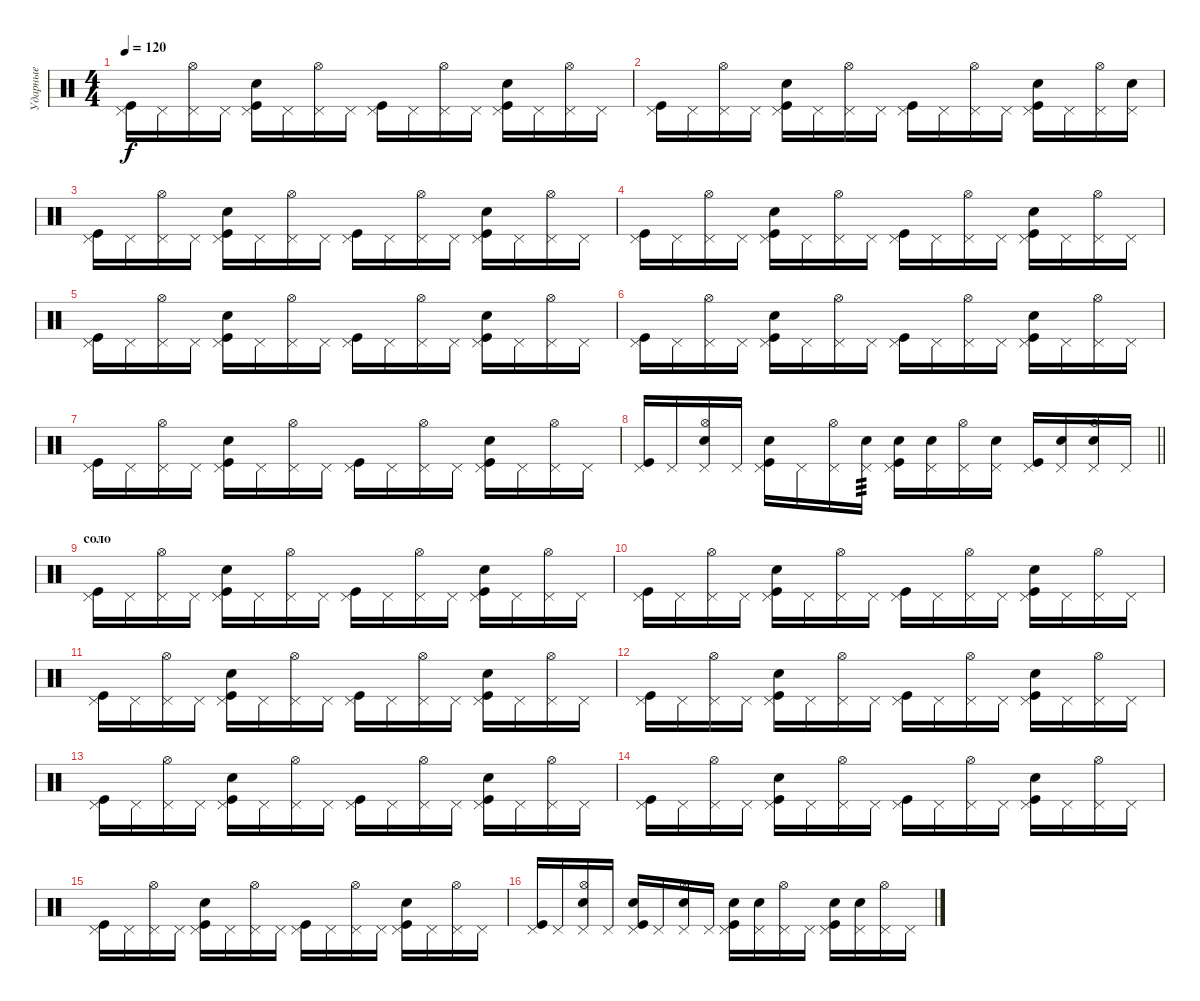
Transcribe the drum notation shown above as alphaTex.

\track ("Ударные" "Ударные") {instrument percussion}
\staff {score}
\articulation defaults
\ts (4 4)
\tempo 120
\clef neutral
\ks c
("Pedal Hi-Hat (hit)" "Kick (hit)").16{dy f} "Pedal Hi-Hat (hit)".16 ("Pedal Hi-Hat (hit)" "Hi-Hat (open)").16 "Pedal Hi-Hat (hit)".16 ("Pedal Hi-Hat (hit)" "Kick (hit)" "Snare (hit) 2").16 "Pedal Hi-Hat (hit)".16 ("Pedal Hi-Hat (hit)" "Hi-Hat (open)").16 "Pedal Hi-Hat (hit)".16 ("Pedal Hi-Hat (hit)" "Kick (hit)").16 "Pedal Hi-Hat (hit)".16 ("Pedal Hi-Hat (hit)" "Hi-Hat (open)").16 "Pedal Hi-Hat (hit)".16 ("Pedal Hi-Hat (hit)" "Kick (hit)" "Snare (hit) 2").16 "Pedal Hi-Hat (hit)".16 ("Pedal Hi-Hat (hit)" "Hi-Hat (open)").16 "Pedal Hi-Hat (hit)".16 |
("Pedal Hi-Hat (hit)" "Kick (hit)").16 "Pedal Hi-Hat (hit)".16 ("Pedal Hi-Hat (hit)" "Hi-Hat (open)").16 "Pedal Hi-Hat (hit)".16 ("Pedal Hi-Hat (hit)" "Kick (hit)" "Snare (hit) 2").16 "Pedal Hi-Hat (hit)".16 ("Pedal Hi-Hat (hit)" "Hi-Hat (open)").16 "Pedal Hi-Hat (hit)".16 ("Pedal Hi-Hat (hit)" "Kick (hit)").16 "Pedal Hi-Hat (hit)".16 ("Pedal Hi-Hat (hit)" "Hi-Hat (open)").16 "Pedal Hi-Hat (hit)".16 ("Pedal Hi-Hat (hit)" "Kick (hit)" "Snare (hit) 2").16 "Pedal Hi-Hat (hit)".16 ("Pedal Hi-Hat (hit)" "Hi-Hat (open)").16 ("Pedal Hi-Hat (hit)" "Snare (hit) 2").16 |
("Pedal Hi-Hat (hit)" "Kick (hit)").16 "Pedal Hi-Hat (hit)".16 ("Pedal Hi-Hat (hit)" "Hi-Hat (open)").16 "Pedal Hi-Hat (hit)".16 ("Pedal Hi-Hat (hit)" "Kick (hit)" "Snare (hit) 2").16 "Pedal Hi-Hat (hit)".16 ("Pedal Hi-Hat (hit)" "Hi-Hat (open)").16 "Pedal Hi-Hat (hit)".16 ("Pedal Hi-Hat (hit)" "Kick (hit)").16 "Pedal Hi-Hat (hit)".16 ("Pedal Hi-Hat (hit)" "Hi-Hat (open)").16 "Pedal Hi-Hat (hit)".16 ("Pedal Hi-Hat (hit)" "Kick (hit)" "Snare (hit) 2").16 "Pedal Hi-Hat (hit)".16 ("Pedal Hi-Hat (hit)" "Hi-Hat (open)").16 "Pedal Hi-Hat (hit)".16 |
("Pedal Hi-Hat (hit)" "Kick (hit)").16 "Pedal Hi-Hat (hit)".16 ("Pedal Hi-Hat (hit)" "Hi-Hat (open)").16 "Pedal Hi-Hat (hit)".16 ("Pedal Hi-Hat (hit)" "Kick (hit)" "Snare (hit) 2").16 "Pedal Hi-Hat (hit)".16 ("Pedal Hi-Hat (hit)" "Hi-Hat (open)").16 "Pedal Hi-Hat (hit)".16 ("Pedal Hi-Hat (hit)" "Kick (hit)").16 "Pedal Hi-Hat (hit)".16 ("Pedal Hi-Hat (hit)" "Hi-Hat (open)").16 "Pedal Hi-Hat (hit)".16 ("Pedal Hi-Hat (hit)" "Kick (hit)" "Snare (hit) 2").16 "Pedal Hi-Hat (hit)".16 ("Pedal Hi-Hat (hit)" "Hi-Hat (open)").16 "Pedal Hi-Hat (hit)".16 |
("Pedal Hi-Hat (hit)" "Kick (hit)").16 "Pedal Hi-Hat (hit)".16 ("Pedal Hi-Hat (hit)" "Hi-Hat (open)").16 "Pedal Hi-Hat (hit)".16 ("Pedal Hi-Hat (hit)" "Kick (hit)" "Snare (hit) 2").16 "Pedal Hi-Hat (hit)".16 ("Pedal Hi-Hat (hit)" "Hi-Hat (open)").16 "Pedal Hi-Hat (hit)".16 ("Pedal Hi-Hat (hit)" "Kick (hit)").16 "Pedal Hi-Hat (hit)".16 ("Pedal Hi-Hat (hit)" "Hi-Hat (open)").16 "Pedal Hi-Hat (hit)".16 ("Pedal Hi-Hat (hit)" "Kick (hit)" "Snare (hit) 2").16 "Pedal Hi-Hat (hit)".16 ("Pedal Hi-Hat (hit)" "Hi-Hat (open)").16 "Pedal Hi-Hat (hit)".16 |
("Pedal Hi-Hat (hit)" "Kick (hit)").16 "Pedal Hi-Hat (hit)".16 ("Pedal Hi-Hat (hit)" "Hi-Hat (open)").16 "Pedal Hi-Hat (hit)".16 ("Pedal Hi-Hat (hit)" "Kick (hit)" "Snare (hit) 2").16 "Pedal Hi-Hat (hit)".16 ("Pedal Hi-Hat (hit)" "Hi-Hat (open)").16 "Pedal Hi-Hat (hit)".16 ("Pedal Hi-Hat (hit)" "Kick (hit)").16 "Pedal Hi-Hat (hit)".16 ("Pedal Hi-Hat (hit)" "Hi-Hat (open)").16 "Pedal Hi-Hat (hit)".16 ("Pedal Hi-Hat (hit)" "Kick (hit)" "Snare (hit) 2").16 "Pedal Hi-Hat (hit)".16 ("Pedal Hi-Hat (hit)" "Hi-Hat (open)").16 "Pedal Hi-Hat (hit)".16 |
("Pedal Hi-Hat (hit)" "Kick (hit)").16 "Pedal Hi-Hat (hit)".16 ("Pedal Hi-Hat (hit)" "Hi-Hat (open)").16 "Pedal Hi-Hat (hit)".16 ("Pedal Hi-Hat (hit)" "Kick (hit)" "Snare (hit) 2").16 "Pedal Hi-Hat (hit)".16 ("Pedal Hi-Hat (hit)" "Hi-Hat (open)").16 "Pedal Hi-Hat (hit)".16 ("Pedal Hi-Hat (hit)" "Kick (hit)").16 "Pedal Hi-Hat (hit)".16 ("Pedal Hi-Hat (hit)" "Hi-Hat (open)").16 "Pedal Hi-Hat (hit)".16 ("Pedal Hi-Hat (hit)" "Kick (hit)" "Snare (hit) 2").16 "Pedal Hi-Hat (hit)".16 ("Pedal Hi-Hat (hit)" "Hi-Hat (open)").16 "Pedal Hi-Hat (hit)".16 |
\barLineRight lightlight
("Pedal Hi-Hat (hit)" "Kick (hit)").16 "Pedal Hi-Hat (hit)".16 ("Pedal Hi-Hat (hit)" "Hi-Hat (open)" "Snare (hit) 2").16 "Pedal Hi-Hat (hit)".16 ("Pedal Hi-Hat (hit)" "Kick (hit)" "Snare (hit) 2").16 "Pedal Hi-Hat (hit)".16 ("Pedal Hi-Hat (hit)" "Hi-Hat (open)").16 ("Pedal Hi-Hat (hit)" "Snare (hit) 2").16{tp 3} ("Pedal Hi-Hat (hit)" "Kick (hit)" "Snare (hit) 2").16 ("Pedal Hi-Hat (hit)" "Snare (hit) 2").16 ("Pedal Hi-Hat (hit)" "Hi-Hat (open)").16 ("Pedal Hi-Hat (hit)" "Snare (hit) 2").16 ("Pedal Hi-Hat (hit)" "Kick (hit)").16 ("Pedal Hi-Hat (hit)" "Snare (hit) 2").16 ("Pedal Hi-Hat (hit)" "Hi-Hat (open)" "Snare (hit) 2").16 "Pedal Hi-Hat (hit)".16 |
\section ("" "соло")
("Pedal Hi-Hat (hit)" "Kick (hit)").16 "Pedal Hi-Hat (hit)".16 ("Pedal Hi-Hat (hit)" "Hi-Hat (open)").16 "Pedal Hi-Hat (hit)".16 ("Pedal Hi-Hat (hit)" "Kick (hit)" "Snare (hit) 2").16 "Pedal Hi-Hat (hit)".16 ("Pedal Hi-Hat (hit)" "Hi-Hat (open)").16 "Pedal Hi-Hat (hit)".16 ("Pedal Hi-Hat (hit)" "Kick (hit)").16 "Pedal Hi-Hat (hit)".16 ("Pedal Hi-Hat (hit)" "Hi-Hat (open)").16 "Pedal Hi-Hat (hit)".16 ("Pedal Hi-Hat (hit)" "Kick (hit)" "Snare (hit) 2").16 "Pedal Hi-Hat (hit)".16 ("Pedal Hi-Hat (hit)" "Hi-Hat (open)").16 "Pedal Hi-Hat (hit)".16 |
("Pedal Hi-Hat (hit)" "Kick (hit)").16 "Pedal Hi-Hat (hit)".16 ("Pedal Hi-Hat (hit)" "Hi-Hat (open)").16 "Pedal Hi-Hat (hit)".16 ("Pedal Hi-Hat (hit)" "Kick (hit)" "Snare (hit) 2").16 "Pedal Hi-Hat (hit)".16 ("Pedal Hi-Hat (hit)" "Hi-Hat (open)").16 "Pedal Hi-Hat (hit)".16 ("Pedal Hi-Hat (hit)" "Kick (hit)").16 "Pedal Hi-Hat (hit)".16 ("Pedal Hi-Hat (hit)" "Hi-Hat (open)").16 "Pedal Hi-Hat (hit)".16 ("Pedal Hi-Hat (hit)" "Kick (hit)" "Snare (hit) 2").16 "Pedal Hi-Hat (hit)".16 ("Pedal Hi-Hat (hit)" "Hi-Hat (open)").16 "Pedal Hi-Hat (hit)".16 |
("Pedal Hi-Hat (hit)" "Kick (hit)").16 "Pedal Hi-Hat (hit)".16 ("Pedal Hi-Hat (hit)" "Hi-Hat (open)").16 "Pedal Hi-Hat (hit)".16 ("Pedal Hi-Hat (hit)" "Kick (hit)" "Snare (hit) 2").16 "Pedal Hi-Hat (hit)".16 ("Pedal Hi-Hat (hit)" "Hi-Hat (open)").16 "Pedal Hi-Hat (hit)".16 ("Pedal Hi-Hat (hit)" "Kick (hit)").16 "Pedal Hi-Hat (hit)".16 ("Pedal Hi-Hat (hit)" "Hi-Hat (open)").16 "Pedal Hi-Hat (hit)".16 ("Pedal Hi-Hat (hit)" "Kick (hit)" "Snare (hit) 2").16 "Pedal Hi-Hat (hit)".16 ("Pedal Hi-Hat (hit)" "Hi-Hat (open)").16 "Pedal Hi-Hat (hit)".16 |
("Pedal Hi-Hat (hit)" "Kick (hit)").16 "Pedal Hi-Hat (hit)".16 ("Pedal Hi-Hat (hit)" "Hi-Hat (open)").16 "Pedal Hi-Hat (hit)".16 ("Pedal Hi-Hat (hit)" "Kick (hit)" "Snare (hit) 2").16 "Pedal Hi-Hat (hit)".16 ("Pedal Hi-Hat (hit)" "Hi-Hat (open)").16 "Pedal Hi-Hat (hit)".16 ("Pedal Hi-Hat (hit)" "Kick (hit)").16 "Pedal Hi-Hat (hit)".16 ("Pedal Hi-Hat (hit)" "Hi-Hat (open)").16 "Pedal Hi-Hat (hit)".16 ("Pedal Hi-Hat (hit)" "Kick (hit)" "Snare (hit) 2").16 "Pedal Hi-Hat (hit)".16 ("Pedal Hi-Hat (hit)" "Hi-Hat (open)").16 "Pedal Hi-Hat (hit)".16 |
("Pedal Hi-Hat (hit)" "Kick (hit)").16 "Pedal Hi-Hat (hit)".16 ("Pedal Hi-Hat (hit)" "Hi-Hat (open)").16 "Pedal Hi-Hat (hit)".16 ("Pedal Hi-Hat (hit)" "Kick (hit)" "Snare (hit) 2").16 "Pedal Hi-Hat (hit)".16 ("Pedal Hi-Hat (hit)" "Hi-Hat (open)").16 "Pedal Hi-Hat (hit)".16 ("Pedal Hi-Hat (hit)" "Kick (hit)").16 "Pedal Hi-Hat (hit)".16 ("Pedal Hi-Hat (hit)" "Hi-Hat (open)").16 "Pedal Hi-Hat (hit)".16 ("Pedal Hi-Hat (hit)" "Kick (hit)" "Snare (hit) 2").16 "Pedal Hi-Hat (hit)".16 ("Pedal Hi-Hat (hit)" "Hi-Hat (open)").16 "Pedal Hi-Hat (hit)".16 |
("Pedal Hi-Hat (hit)" "Kick (hit)").16 "Pedal Hi-Hat (hit)".16 ("Pedal Hi-Hat (hit)" "Hi-Hat (open)").16 "Pedal Hi-Hat (hit)".16 ("Pedal Hi-Hat (hit)" "Kick (hit)" "Snare (hit) 2").16 "Pedal Hi-Hat (hit)".16 ("Pedal Hi-Hat (hit)" "Hi-Hat (open)").16 "Pedal Hi-Hat (hit)".16 ("Pedal Hi-Hat (hit)" "Kick (hit)").16 "Pedal Hi-Hat (hit)".16 ("Pedal Hi-Hat (hit)" "Hi-Hat (open)").16 "Pedal Hi-Hat (hit)".16 ("Pedal Hi-Hat (hit)" "Kick (hit)" "Snare (hit) 2").16 "Pedal Hi-Hat (hit)".16 ("Pedal Hi-Hat (hit)" "Hi-Hat (open)").16 "Pedal Hi-Hat (hit)".16 |
("Pedal Hi-Hat (hit)" "Kick (hit)").16 "Pedal Hi-Hat (hit)".16 ("Pedal Hi-Hat (hit)" "Hi-Hat (open)").16 "Pedal Hi-Hat (hit)".16 ("Pedal Hi-Hat (hit)" "Kick (hit)" "Snare (hit) 2").16 "Pedal Hi-Hat (hit)".16 ("Pedal Hi-Hat (hit)" "Hi-Hat (open)").16 "Pedal Hi-Hat (hit)".16 ("Pedal Hi-Hat (hit)" "Kick (hit)").16 "Pedal Hi-Hat (hit)".16 ("Pedal Hi-Hat (hit)" "Hi-Hat (open)").16 "Pedal Hi-Hat (hit)".16 ("Pedal Hi-Hat (hit)" "Kick (hit)" "Snare (hit) 2").16 "Pedal Hi-Hat (hit)".16 ("Pedal Hi-Hat (hit)" "Hi-Hat (open)").16 "Pedal Hi-Hat (hit)".16 |
("Pedal Hi-Hat (hit)" "Kick (hit)").16 "Pedal Hi-Hat (hit)".16 ("Pedal Hi-Hat (hit)" "Hi-Hat (open)" "Snare (hit) 2").16 "Pedal Hi-Hat (hit)".16 ("Pedal Hi-Hat (hit)" "Kick (hit)" "Snare (hit) 2").16 "Pedal Hi-Hat (hit)".16 ("Pedal Hi-Hat (hit)" "Hi-Hat (open)" "Snare (hit) 2").16 "Pedal Hi-Hat (hit)".16 ("Pedal Hi-Hat (hit)" "Kick (hit)" "Snare (hit) 2").16 ("Pedal Hi-Hat (hit)" "Snare (hit) 2").16 ("Pedal Hi-Hat (hit)" "Hi-Hat (open)").16 "Pedal Hi-Hat (hit)".16 ("Pedal Hi-Hat (hit)" "Kick (hit)" "Snare (hit) 2").16 ("Pedal Hi-Hat (hit)" "Snare (hit) 2").16 ("Pedal Hi-Hat (hit)" "Hi-Hat (open)").16 "Pedal Hi-Hat (hit)".16
